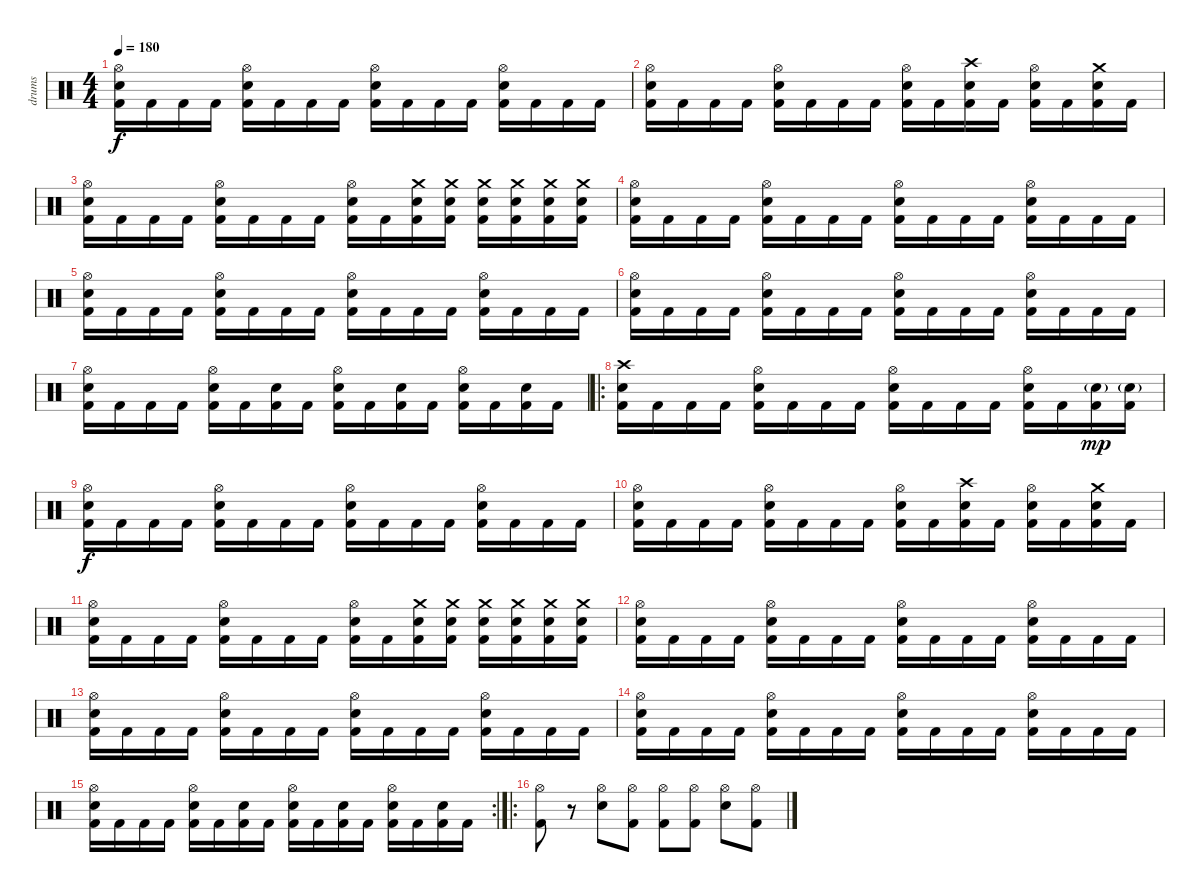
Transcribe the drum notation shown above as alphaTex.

\track ("drums" "drums") {instrument percussion}
\staff {score}
\articulation defaults
\ts (4 4)
\tempo 180
\clef neutral
\ks c
("Hi-Hat (open)" "Electric Snare (hit)" "Kick (hit) 2").16{dy f} "Kick (hit) 2".16 "Kick (hit) 2".16 "Kick (hit) 2".16 ("Hi-Hat (open)" "Electric Snare (hit)" "Kick (hit) 2").16 "Kick (hit) 2".16 "Kick (hit) 2".16 "Kick (hit) 2".16 ("Hi-Hat (open)" "Electric Snare (hit)" "Kick (hit) 2").16 "Kick (hit) 2".16 "Kick (hit) 2".16 "Kick (hit) 2".16 ("Hi-Hat (open)" "Electric Snare (hit)" "Kick (hit) 2").16 "Kick (hit) 2".16 "Kick (hit) 2".16 "Kick (hit) 2".16 |
("Hi-Hat (open)" "Electric Snare (hit)" "Kick (hit) 2").16 "Kick (hit) 2".16 "Kick (hit) 2".16 "Kick (hit) 2".16 ("Hi-Hat (open)" "Electric Snare (hit)" "Kick (hit) 2").16 "Kick (hit) 2".16 "Kick (hit) 2".16 "Kick (hit) 2".16 ("Hi-Hat (open)" "Electric Snare (hit)" "Kick (hit) 2").16 "Kick (hit) 2".16 ("Crash high (hit)" "Electric Snare (hit)" "Kick (hit) 2").16 "Kick (hit) 2".16 ("Hi-Hat (open)" "Electric Snare (hit)" "Kick (hit) 2").16 "Kick (hit) 2".16 ("Crash medium (hit)" "Electric Snare (hit)" "Kick (hit) 2").16 "Kick (hit) 2".16 |
("Hi-Hat (open)" "Electric Snare (hit)" "Kick (hit) 2").16 "Kick (hit) 2".16 "Kick (hit) 2".16 "Kick (hit) 2".16 ("Hi-Hat (open)" "Electric Snare (hit)" "Kick (hit) 2").16 "Kick (hit) 2".16 "Kick (hit) 2".16 "Kick (hit) 2".16 ("Hi-Hat (open)" "Electric Snare (hit)" "Kick (hit) 2").16 "Kick (hit) 2".16 ("Crash medium (hit)" "Electric Snare (hit)" "Kick (hit) 2").16 ("Crash medium (hit)" "Electric Snare (hit)" "Kick (hit) 2").16 ("Crash medium (hit)" "Electric Snare (hit)" "Kick (hit) 2").16 ("Crash medium (hit)" "Electric Snare (hit)" "Kick (hit) 2").16 ("Crash medium (hit)" "Electric Snare (hit)" "Kick (hit) 2").16 ("Crash medium (hit)" "Electric Snare (hit)" "Kick (hit) 2").16 |
("Hi-Hat (open)" "Electric Snare (hit)" "Kick (hit) 2").16 "Kick (hit) 2".16 "Kick (hit) 2".16 "Kick (hit) 2".16 ("Hi-Hat (open)" "Electric Snare (hit)" "Kick (hit) 2").16 "Kick (hit) 2".16 "Kick (hit) 2".16 "Kick (hit) 2".16 ("Hi-Hat (open)" "Electric Snare (hit)" "Kick (hit) 2").16 "Kick (hit) 2".16 "Kick (hit) 2".16 "Kick (hit) 2".16 ("Hi-Hat (open)" "Electric Snare (hit)" "Kick (hit) 2").16 "Kick (hit) 2".16 "Kick (hit) 2".16 "Kick (hit) 2".16 |
("Hi-Hat (open)" "Electric Snare (hit)" "Kick (hit) 2").16 "Kick (hit) 2".16 "Kick (hit) 2".16 "Kick (hit) 2".16 ("Hi-Hat (open)" "Electric Snare (hit)" "Kick (hit) 2").16 "Kick (hit) 2".16 "Kick (hit) 2".16 "Kick (hit) 2".16 ("Hi-Hat (open)" "Electric Snare (hit)" "Kick (hit) 2").16 "Kick (hit) 2".16 "Kick (hit) 2".16 "Kick (hit) 2".16 ("Hi-Hat (open)" "Electric Snare (hit)" "Kick (hit) 2").16 "Kick (hit) 2".16 "Kick (hit) 2".16 "Kick (hit) 2".16 |
("Hi-Hat (open)" "Electric Snare (hit)" "Kick (hit) 2").16 "Kick (hit) 2".16 "Kick (hit) 2".16 "Kick (hit) 2".16 ("Hi-Hat (open)" "Electric Snare (hit)" "Kick (hit) 2").16 "Kick (hit) 2".16 "Kick (hit) 2".16 "Kick (hit) 2".16 ("Hi-Hat (open)" "Electric Snare (hit)" "Kick (hit) 2").16 "Kick (hit) 2".16 "Kick (hit) 2".16 "Kick (hit) 2".16 ("Hi-Hat (open)" "Electric Snare (hit)" "Kick (hit) 2").16 "Kick (hit) 2".16 "Kick (hit) 2".16 "Kick (hit) 2".16 |
("Hi-Hat (open)" "Electric Snare (hit)" "Kick (hit) 2").16 "Kick (hit) 2".16 "Kick (hit) 2".16 "Kick (hit) 2".16 ("Hi-Hat (open)" "Electric Snare (hit)" "Kick (hit) 2").16 "Kick (hit) 2".16 ("Electric Snare (hit)" "Kick (hit) 2").16 "Kick (hit) 2".16 ("Hi-Hat (open)" "Electric Snare (hit)" "Kick (hit) 2").16 "Kick (hit) 2".16 ("Electric Snare (hit)" "Kick (hit) 2").16 "Kick (hit) 2".16 ("Hi-Hat (open)" "Electric Snare (hit)" "Kick (hit) 2").16 "Kick (hit) 2".16 ("Electric Snare (hit)" "Kick (hit) 2").16 "Kick (hit) 2".16 |
\ro
("Crash high (hit)" "Electric Snare (hit)" "Kick (hit) 2").16 "Kick (hit) 2".16 "Kick (hit) 2".16 "Kick (hit) 2".16 ("Hi-Hat (open)" "Electric Snare (hit)" "Kick (hit) 2").16 "Kick (hit) 2".16 "Kick (hit) 2".16 "Kick (hit) 2".16 ("Hi-Hat (open)" "Electric Snare (hit)" "Kick (hit) 2").16 "Kick (hit) 2".16 "Kick (hit) 2".16 "Kick (hit) 2".16 ("Hi-Hat (open)" "Electric Snare (hit)" "Kick (hit) 2").16 "Kick (hit) 2".16 ("Electric Snare (hit)"{g} "Kick (hit) 2").16{dy mp} ("Electric Snare (hit)"{g} "Kick (hit) 2").16 |
("Hi-Hat (open)" "Electric Snare (hit)" "Kick (hit) 2").16{dy f} "Kick (hit) 2".16 "Kick (hit) 2".16 "Kick (hit) 2".16 ("Hi-Hat (open)" "Electric Snare (hit)" "Kick (hit) 2").16 "Kick (hit) 2".16 "Kick (hit) 2".16 "Kick (hit) 2".16 ("Hi-Hat (open)" "Electric Snare (hit)" "Kick (hit) 2").16 "Kick (hit) 2".16 "Kick (hit) 2".16 "Kick (hit) 2".16 ("Hi-Hat (open)" "Electric Snare (hit)" "Kick (hit) 2").16 "Kick (hit) 2".16 "Kick (hit) 2".16 "Kick (hit) 2".16 |
("Hi-Hat (open)" "Electric Snare (hit)" "Kick (hit) 2").16 "Kick (hit) 2".16 "Kick (hit) 2".16 "Kick (hit) 2".16 ("Hi-Hat (open)" "Electric Snare (hit)" "Kick (hit) 2").16 "Kick (hit) 2".16 "Kick (hit) 2".16 "Kick (hit) 2".16 ("Hi-Hat (open)" "Electric Snare (hit)" "Kick (hit) 2").16 "Kick (hit) 2".16 ("Crash high (hit)" "Electric Snare (hit)" "Kick (hit) 2").16 "Kick (hit) 2".16 ("Hi-Hat (open)" "Electric Snare (hit)" "Kick (hit) 2").16 "Kick (hit) 2".16 ("Crash medium (hit)" "Electric Snare (hit)" "Kick (hit) 2").16 "Kick (hit) 2".16 |
("Hi-Hat (open)" "Electric Snare (hit)" "Kick (hit) 2").16 "Kick (hit) 2".16 "Kick (hit) 2".16 "Kick (hit) 2".16 ("Hi-Hat (open)" "Electric Snare (hit)" "Kick (hit) 2").16 "Kick (hit) 2".16 "Kick (hit) 2".16 "Kick (hit) 2".16 ("Hi-Hat (open)" "Electric Snare (hit)" "Kick (hit) 2").16 "Kick (hit) 2".16 ("Crash medium (hit)" "Electric Snare (hit)" "Kick (hit) 2").16 ("Crash medium (hit)" "Electric Snare (hit)" "Kick (hit) 2").16 ("Crash medium (hit)" "Electric Snare (hit)" "Kick (hit) 2").16 ("Crash medium (hit)" "Electric Snare (hit)" "Kick (hit) 2").16 ("Crash medium (hit)" "Electric Snare (hit)" "Kick (hit) 2").16 ("Crash medium (hit)" "Electric Snare (hit)" "Kick (hit) 2").16 |
("Hi-Hat (open)" "Electric Snare (hit)" "Kick (hit) 2").16 "Kick (hit) 2".16 "Kick (hit) 2".16 "Kick (hit) 2".16 ("Hi-Hat (open)" "Electric Snare (hit)" "Kick (hit) 2").16 "Kick (hit) 2".16 "Kick (hit) 2".16 "Kick (hit) 2".16 ("Hi-Hat (open)" "Electric Snare (hit)" "Kick (hit) 2").16 "Kick (hit) 2".16 "Kick (hit) 2".16 "Kick (hit) 2".16 ("Hi-Hat (open)" "Electric Snare (hit)" "Kick (hit) 2").16 "Kick (hit) 2".16 "Kick (hit) 2".16 "Kick (hit) 2".16 |
("Hi-Hat (open)" "Electric Snare (hit)" "Kick (hit) 2").16 "Kick (hit) 2".16 "Kick (hit) 2".16 "Kick (hit) 2".16 ("Hi-Hat (open)" "Electric Snare (hit)" "Kick (hit) 2").16 "Kick (hit) 2".16 "Kick (hit) 2".16 "Kick (hit) 2".16 ("Hi-Hat (open)" "Electric Snare (hit)" "Kick (hit) 2").16 "Kick (hit) 2".16 "Kick (hit) 2".16 "Kick (hit) 2".16 ("Hi-Hat (open)" "Electric Snare (hit)" "Kick (hit) 2").16 "Kick (hit) 2".16 "Kick (hit) 2".16 "Kick (hit) 2".16 |
("Hi-Hat (open)" "Electric Snare (hit)" "Kick (hit) 2").16 "Kick (hit) 2".16 "Kick (hit) 2".16 "Kick (hit) 2".16 ("Hi-Hat (open)" "Electric Snare (hit)" "Kick (hit) 2").16 "Kick (hit) 2".16 "Kick (hit) 2".16 "Kick (hit) 2".16 ("Hi-Hat (open)" "Electric Snare (hit)" "Kick (hit) 2").16 "Kick (hit) 2".16 "Kick (hit) 2".16 "Kick (hit) 2".16 ("Hi-Hat (open)" "Electric Snare (hit)" "Kick (hit) 2").16 "Kick (hit) 2".16 "Kick (hit) 2".16 "Kick (hit) 2".16 |
\rc 2
("Hi-Hat (open)" "Electric Snare (hit)" "Kick (hit) 2").16 "Kick (hit) 2".16 "Kick (hit) 2".16 "Kick (hit) 2".16 ("Hi-Hat (open)" "Electric Snare (hit)" "Kick (hit) 2").16 "Kick (hit) 2".16 ("Electric Snare (hit)" "Kick (hit) 2").16 "Kick (hit) 2".16 ("Hi-Hat (open)" "Electric Snare (hit)" "Kick (hit) 2").16 "Kick (hit) 2".16 ("Electric Snare (hit)" "Kick (hit) 2").16 "Kick (hit) 2".16 ("Hi-Hat (open)" "Electric Snare (hit)" "Kick (hit) 2").16 "Kick (hit) 2".16 ("Electric Snare (hit)" "Kick (hit) 2").16 "Kick (hit) 2".16 |
\ro
("Hi-Hat (open)" "Kick (hit) 2").8 r.8 ("Hi-Hat (open)" "Electric Snare (hit)").8 ("Hi-Hat (open)" "Kick (hit) 2").8 ("Hi-Hat (open)" "Kick (hit) 2").8 ("Hi-Hat (open)" "Kick (hit) 2").8 ("Hi-Hat (open)" "Electric Snare (hit)").8 ("Hi-Hat (open)" "Kick (hit) 2").8
